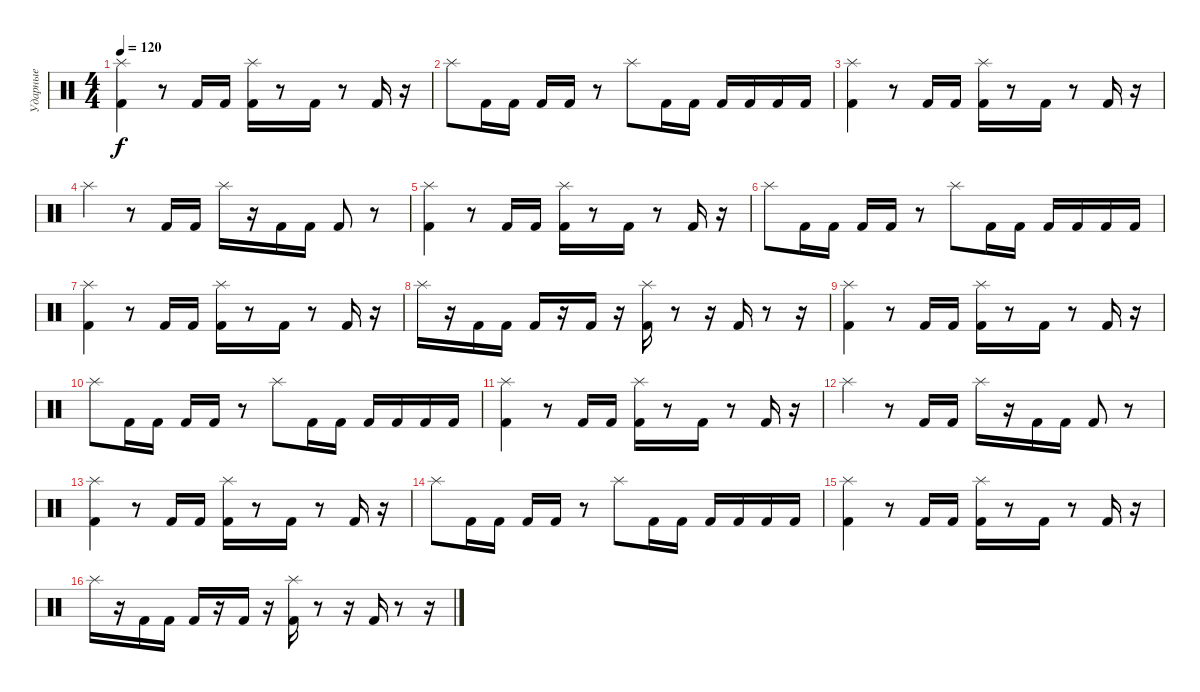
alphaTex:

\track ("Ударные" "Ударные") {instrument percussion}
\staff {score}
\articulation defaults
\ts (4 4)
\tempo 120
\clef neutral
\ks c
("Splash (hit)" "Kick (hit) 2").4{dy f} r.8 "Kick (hit) 2".16 "Kick (hit) 2".16 ("Splash (hit)" "Kick (hit) 2").16 r.8 "Kick (hit) 2".16 r.8 "Kick (hit) 2".16 r.16 |
"Splash (hit)".8 "Kick (hit) 2".16 "Kick (hit) 2".16 "Kick (hit) 2".16 "Kick (hit) 2".16 r.8 "Splash (hit)".8 "Kick (hit) 2".16 "Kick (hit) 2".16 "Kick (hit) 2".16 "Kick (hit) 2".16 "Kick (hit) 2".16 "Kick (hit) 2".16 |
("Splash (hit)" "Kick (hit) 2").4 r.8 "Kick (hit) 2".16 "Kick (hit) 2".16 ("Splash (hit)" "Kick (hit) 2").16 r.8 "Kick (hit) 2".16 r.8 "Kick (hit) 2".16 r.16 |
"Splash (hit)".4 r.8 "Kick (hit) 2".16 "Kick (hit) 2".16 "Splash (hit)".16 r.16 "Kick (hit) 2".16 "Kick (hit) 2".16 "Kick (hit) 2".8 r.8 |
("Splash (hit)" "Kick (hit) 2").4 r.8 "Kick (hit) 2".16 "Kick (hit) 2".16 ("Splash (hit)" "Kick (hit) 2").16 r.8 "Kick (hit) 2".16 r.8 "Kick (hit) 2".16 r.16 |
"Splash (hit)".8 "Kick (hit) 2".16 "Kick (hit) 2".16 "Kick (hit) 2".16 "Kick (hit) 2".16 r.8 "Splash (hit)".8 "Kick (hit) 2".16 "Kick (hit) 2".16 "Kick (hit) 2".16 "Kick (hit) 2".16 "Kick (hit) 2".16 "Kick (hit) 2".16 |
("Splash (hit)" "Kick (hit) 2").4 r.8 "Kick (hit) 2".16 "Kick (hit) 2".16 ("Splash (hit)" "Kick (hit) 2").16 r.8 "Kick (hit) 2".16 r.8 "Kick (hit) 2".16 r.16 |
"Splash (hit)".16 r.16 "Kick (hit) 2".16 "Kick (hit) 2".16 "Kick (hit) 2".16 r.16 "Kick (hit) 2".16 r.16 ("Splash (hit)" "Kick (hit) 2").16 r.8 r.16 "Kick (hit) 2".16 r.8 r.16 |
("Splash (hit)" "Kick (hit) 2").4 r.8 "Kick (hit) 2".16 "Kick (hit) 2".16 ("Splash (hit)" "Kick (hit) 2").16 r.8 "Kick (hit) 2".16 r.8 "Kick (hit) 2".16 r.16 |
"Splash (hit)".8 "Kick (hit) 2".16 "Kick (hit) 2".16 "Kick (hit) 2".16 "Kick (hit) 2".16 r.8 "Splash (hit)".8 "Kick (hit) 2".16 "Kick (hit) 2".16 "Kick (hit) 2".16 "Kick (hit) 2".16 "Kick (hit) 2".16 "Kick (hit) 2".16 |
("Splash (hit)" "Kick (hit) 2").4 r.8 "Kick (hit) 2".16 "Kick (hit) 2".16 ("Splash (hit)" "Kick (hit) 2").16 r.8 "Kick (hit) 2".16 r.8 "Kick (hit) 2".16 r.16 |
"Splash (hit)".4 r.8 "Kick (hit) 2".16 "Kick (hit) 2".16 "Splash (hit)".16 r.16 "Kick (hit) 2".16 "Kick (hit) 2".16 "Kick (hit) 2".8 r.8 |
("Splash (hit)" "Kick (hit) 2").4 r.8 "Kick (hit) 2".16 "Kick (hit) 2".16 ("Splash (hit)" "Kick (hit) 2").16 r.8 "Kick (hit) 2".16 r.8 "Kick (hit) 2".16 r.16 |
"Splash (hit)".8 "Kick (hit) 2".16 "Kick (hit) 2".16 "Kick (hit) 2".16 "Kick (hit) 2".16 r.8 "Splash (hit)".8 "Kick (hit) 2".16 "Kick (hit) 2".16 "Kick (hit) 2".16 "Kick (hit) 2".16 "Kick (hit) 2".16 "Kick (hit) 2".16 |
("Splash (hit)" "Kick (hit) 2").4 r.8 "Kick (hit) 2".16 "Kick (hit) 2".16 ("Splash (hit)" "Kick (hit) 2").16 r.8 "Kick (hit) 2".16 r.8 "Kick (hit) 2".16 r.16 |
"Splash (hit)".16 r.16 "Kick (hit) 2".16 "Kick (hit) 2".16 "Kick (hit) 2".16 r.16 "Kick (hit) 2".16 r.16 ("Splash (hit)" "Kick (hit) 2").16 r.8 r.16 "Kick (hit) 2".16 r.8 r.16
